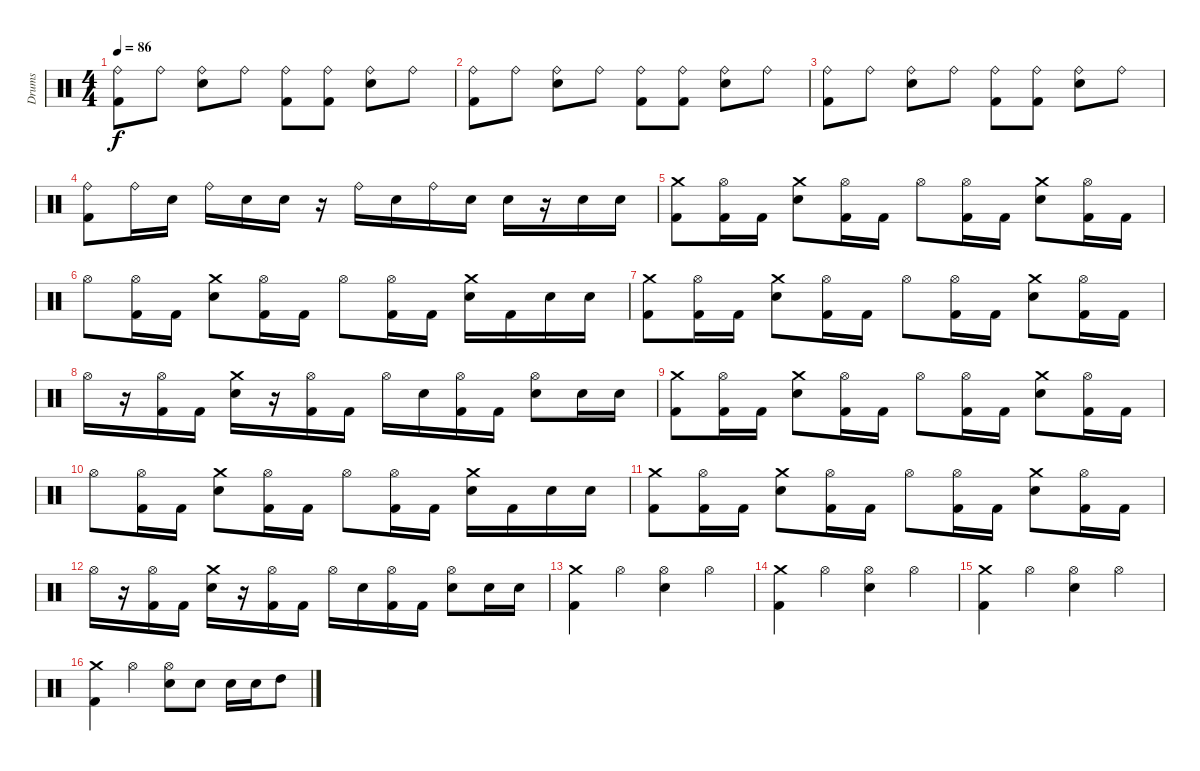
\track ("Drums" "Drums") {instrument percussion}
\staff {score}
\articulation defaults
\ts (4 4)
\tempo 86
\clef neutral
\ks c
("Kick (hit) 2" "Ride (bell)").8{dy f} "Ride (bell)".8 ("Snare (hit) 2" "Ride (bell)").8 "Ride (bell)".8 ("Kick (hit) 2" "Ride (bell)").8 ("Kick (hit) 2" "Ride (bell)").8 ("Snare (hit) 2" "Ride (bell)").8 "Ride (bell)".8 |
("Kick (hit) 2" "Ride (bell)").8 "Ride (bell)".8 ("Snare (hit) 2" "Ride (bell)").8 "Ride (bell)".8 ("Kick (hit) 2" "Ride (bell)").8 ("Kick (hit) 2" "Ride (bell)").8 ("Snare (hit) 2" "Ride (bell)").8 "Ride (bell)".8 |
("Kick (hit) 2" "Ride (bell)").8 "Ride (bell)".8 ("Snare (hit) 2" "Ride (bell)").8 "Ride (bell)".8 ("Kick (hit) 2" "Ride (bell)").8 ("Kick (hit) 2" "Ride (bell)").8 ("Snare (hit) 2" "Ride (bell)").8 "Ride (bell)".8 |
("Kick (hit) 2" "Ride (bell)").8 "Ride (bell)".16 "Snare (hit) 2".16 "Ride (bell)".16 "Snare (hit) 2".16 "Snare (hit) 2".16 r.16 "Ride (bell)".16 "Snare (hit) 2".16 "Ride (bell)".16 "Snare (hit) 2".16 "Snare (hit) 2".16 r.16 "Snare (hit) 2".16 "Snare (hit) 2".16 |
("Kick (hit) 2" "Crash medium (hit)").8 ("Kick (hit) 2" "Hi-Hat (open)").16 "Kick (hit) 2".16 ("Snare (hit) 2" "Crash medium (hit)").8 ("Kick (hit) 2" "Hi-Hat (open)").16 "Kick (hit) 2".16 "Hi-Hat (open)".8 ("Kick (hit) 2" "Hi-Hat (open)").16 "Kick (hit) 2".16 ("Snare (hit) 2" "Crash medium (hit)").8 ("Kick (hit) 2" "Hi-Hat (open)").16 "Kick (hit) 2".16 |
"Hi-Hat (open)".8 ("Kick (hit) 2" "Hi-Hat (open)").16 "Kick (hit) 2".16 ("Snare (hit) 2" "Crash medium (hit)").8 ("Kick (hit) 2" "Hi-Hat (open)").16 "Kick (hit) 2".16 "Hi-Hat (open)".8 ("Kick (hit) 2" "Hi-Hat (open)").16 "Kick (hit) 2".16 ("Snare (hit) 2" "Crash medium (hit)").16 "Kick (hit) 2".16 "Snare (hit) 2".16 "Snare (hit) 2".16 |
("Kick (hit) 2" "Crash medium (hit)").8 ("Kick (hit) 2" "Hi-Hat (open)").16 "Kick (hit) 2".16 ("Snare (hit) 2" "Crash medium (hit)").8 ("Kick (hit) 2" "Hi-Hat (open)").16 "Kick (hit) 2".16 "Hi-Hat (open)".8 ("Kick (hit) 2" "Hi-Hat (open)").16 "Kick (hit) 2".16 ("Snare (hit) 2" "Crash medium (hit)").8 ("Kick (hit) 2" "Hi-Hat (open)").16 "Kick (hit) 2".16 |
"Hi-Hat (open)".16 r.16 ("Kick (hit) 2" "Hi-Hat (open)").16 "Kick (hit) 2".16 ("Snare (hit) 2" "Crash medium (hit)").16 r.16 ("Kick (hit) 2" "Hi-Hat (open)").16 "Kick (hit) 2".16 "Hi-Hat (open)".16 "Snare (hit) 2".16 ("Kick (hit) 2" "Hi-Hat (open)").16 "Kick (hit) 2".16 ("Snare (hit) 2" "Hi-Hat (open)").8 "Snare (hit) 2".16 "Snare (hit) 2".16 |
("Kick (hit) 2" "Crash medium (hit)").8 ("Kick (hit) 2" "Hi-Hat (open)").16 "Kick (hit) 2".16 ("Snare (hit) 2" "Crash medium (hit)").8 ("Kick (hit) 2" "Hi-Hat (open)").16 "Kick (hit) 2".16 "Hi-Hat (open)".8 ("Kick (hit) 2" "Hi-Hat (open)").16 "Kick (hit) 2".16 ("Snare (hit) 2" "Crash medium (hit)").8 ("Kick (hit) 2" "Hi-Hat (open)").16 "Kick (hit) 2".16 |
"Hi-Hat (open)".8 ("Kick (hit) 2" "Hi-Hat (open)").16 "Kick (hit) 2".16 ("Snare (hit) 2" "Crash medium (hit)").8 ("Kick (hit) 2" "Hi-Hat (open)").16 "Kick (hit) 2".16 "Hi-Hat (open)".8 ("Kick (hit) 2" "Hi-Hat (open)").16 "Kick (hit) 2".16 ("Snare (hit) 2" "Crash medium (hit)").16 "Kick (hit) 2".16 "Snare (hit) 2".16 "Snare (hit) 2".16 |
("Kick (hit) 2" "Crash medium (hit)").8 ("Kick (hit) 2" "Hi-Hat (open)").16 "Kick (hit) 2".16 ("Snare (hit) 2" "Crash medium (hit)").8 ("Kick (hit) 2" "Hi-Hat (open)").16 "Kick (hit) 2".16 "Hi-Hat (open)".8 ("Kick (hit) 2" "Hi-Hat (open)").16 "Kick (hit) 2".16 ("Snare (hit) 2" "Crash medium (hit)").8 ("Kick (hit) 2" "Hi-Hat (open)").16 "Kick (hit) 2".16 |
"Hi-Hat (open)".16 r.16 ("Kick (hit) 2" "Hi-Hat (open)").16 "Kick (hit) 2".16 ("Snare (hit) 2" "Crash medium (hit)").16 r.16 ("Kick (hit) 2" "Hi-Hat (open)").16 "Kick (hit) 2".16 "Hi-Hat (open)".16 "Snare (hit) 2".16 ("Kick (hit) 2" "Hi-Hat (open)").16 "Kick (hit) 2".16 ("Snare (hit) 2" "Hi-Hat (open)").8 "Snare (hit) 2".16 "Snare (hit) 2".16 |
("Kick (hit) 2" "Crash medium (hit)").4 "Hi-Hat (open)".4 ("Snare (hit) 2" "Hi-Hat (open)").4 "Hi-Hat (open)".4 |
("Kick (hit) 2" "Crash medium (hit)").4 "Hi-Hat (open)".4 ("Snare (hit) 2" "Hi-Hat (open)").4 "Hi-Hat (open)".4 |
("Kick (hit) 2" "Crash medium (hit)").4 "Hi-Hat (open)".4 ("Snare (hit) 2" "Hi-Hat (open)").4 "Hi-Hat (open)".4 |
("Kick (hit) 2" "Crash medium (hit)").4 "Hi-Hat (open)".4 ("Hi-Hat (open)" "Snare (hit) 2").8 "Snare (hit) 2".8 "Snare (hit) 2".16 "Snare (hit) 2".16 "High Tom (hit)".8
